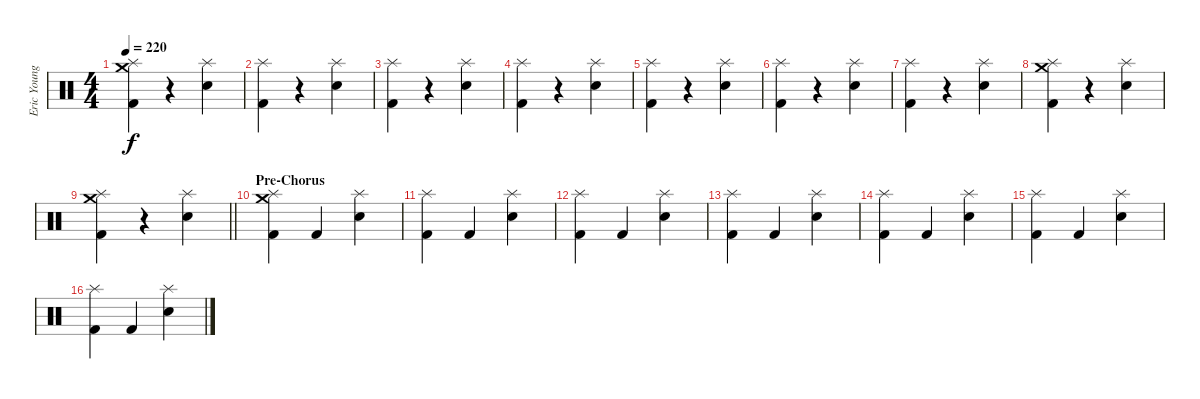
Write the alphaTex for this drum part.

\track ("Eric Young (Drums)" "Eric Young") {instrument percussion}
\staff {score}
\articulation defaults
\ts (4 4)
\tempo 220
\clef neutral
\ks c
("Splash (hit)" "Kick (hit) 2" "Crash medium (hit)").4{dy f} r.4 ("Splash (hit)" "Snare (hit) 2").4 |
("Splash (hit)" "Kick (hit) 2").4 r.4 ("Splash (hit)" "Snare (hit) 2").4 |
("Splash (hit)" "Kick (hit) 2").4 r.4 ("Splash (hit)" "Snare (hit) 2").4 |
("Splash (hit)" "Kick (hit) 2").4 r.4 ("Splash (hit)" "Snare (hit) 2").4 |
("Splash (hit)" "Kick (hit) 2").4 r.4 ("Splash (hit)" "Snare (hit) 2").4 |
("Splash (hit)" "Kick (hit) 2").4 r.4 ("Splash (hit)" "Snare (hit) 2").4 |
("Splash (hit)" "Kick (hit) 2").4 r.4 ("Splash (hit)" "Snare (hit) 2").4 |
("Splash (hit)" "Kick (hit) 2" "Crash medium (hit)").4 r.4 ("Splash (hit)" "Snare (hit) 2").4 |
\barLineRight lightlight
("Splash (hit)" "Kick (hit) 2" "Crash medium (hit)").4 r.4 ("Splash (hit)" "Snare (hit) 2").4 |
\section ("" "Pre-Chorus")
("Splash (hit)" "Kick (hit) 2" "Crash medium (hit)").4 "Kick (hit) 2".4 ("Splash (hit)" "Snare (hit) 2").4 |
("Splash (hit)" "Kick (hit) 2").4 "Kick (hit) 2".4 ("Splash (hit)" "Snare (hit) 2").4 |
("Splash (hit)" "Kick (hit) 2").4 "Kick (hit) 2".4 ("Splash (hit)" "Snare (hit) 2").4 |
("Splash (hit)" "Kick (hit) 2").4 "Kick (hit) 2".4 ("Splash (hit)" "Snare (hit) 2").4 |
("Splash (hit)" "Kick (hit) 2").4 "Kick (hit) 2".4 ("Splash (hit)" "Snare (hit) 2").4 |
("Splash (hit)" "Kick (hit) 2").4 "Kick (hit) 2".4 ("Splash (hit)" "Snare (hit) 2").4 |
("Splash (hit)" "Kick (hit) 2").4 "Kick (hit) 2".4 ("Splash (hit)" "Snare (hit) 2").4
